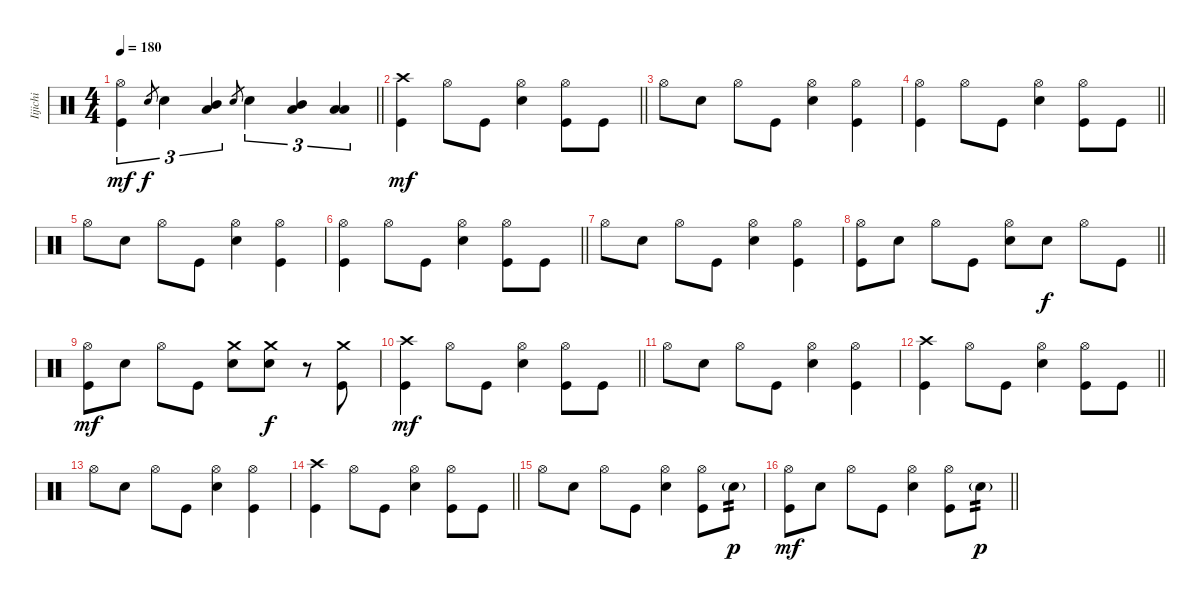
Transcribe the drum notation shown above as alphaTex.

\track ("Iijichi" "Iijichi") {instrument percussion}
\staff {score}
\articulation defaults
\ts (4 4)
\tempo 180
\clef neutral
\barLineRight lightlight
\ks c
("Hi-Hat (open)" "Kick (hit)").4{tu (3 2) dy mf} "Electric Snare (hit)".8{gr dy f} "Electric Snare (hit)".4{tu (3 2)} ("Mid Tom (hit)" "Low Tom (hit)").4{tu (3 2)} "Electric Snare (hit)".8{gr} "Electric Snare (hit)".4{tu (3 2)} ("Mid Tom (hit)" "Low Tom (hit)").4{tu (3 2)} ("Low Tom (hit)" "Low Floor Tom (hit)").4{tu (3 2)} |
\barLineRight lightlight
("Crash high (hit)" "Kick (hit)").4{dy mf} "Hi-Hat (open)".8 "Kick (hit)".8 ("Hi-Hat (open)" "Electric Snare (hit)").4 ("Hi-Hat (open)" "Kick (hit)").8 "Kick (hit)".8 |
"Hi-Hat (open)".8 "Electric Snare (hit)".8 "Hi-Hat (open)".8 "Kick (hit)".8 ("Hi-Hat (open)" "Electric Snare (hit)").4 ("Hi-Hat (open)" "Kick (hit)").4 |
\barLineRight lightlight
("Hi-Hat (open)" "Kick (hit)").4 "Hi-Hat (open)".8 "Kick (hit)".8 ("Hi-Hat (open)" "Electric Snare (hit)").4 ("Hi-Hat (open)" "Kick (hit)").8 "Kick (hit)".8 |
"Hi-Hat (open)".8 "Electric Snare (hit)".8 "Hi-Hat (open)".8 "Kick (hit)".8 ("Hi-Hat (open)" "Electric Snare (hit)").4 ("Hi-Hat (open)" "Kick (hit)").4 |
\barLineRight lightlight
("Hi-Hat (open)" "Kick (hit)").4 "Hi-Hat (open)".8 "Kick (hit)".8 ("Hi-Hat (open)" "Electric Snare (hit)").4 ("Hi-Hat (open)" "Kick (hit)").8 "Kick (hit)".8 |
"Hi-Hat (open)".8 "Electric Snare (hit)".8 "Hi-Hat (open)".8 "Kick (hit)".8 ("Hi-Hat (open)" "Electric Snare (hit)").4 ("Hi-Hat (open)" "Kick (hit)").4 |
\barLineRight lightlight
("Hi-Hat (open)" "Kick (hit)").8 "Electric Snare (hit)".8 "Hi-Hat (open)".8 "Kick (hit)".8 ("Hi-Hat (open)" "Electric Snare (hit)").8 "Electric Snare (hit)".8{dy f} "Hi-Hat (open)".8 "Kick (hit)".8 |
("Hi-Hat (open)" "Kick (hit)").8{dy mf} "Electric Snare (hit)".8 "Hi-Hat (open)".8 "Kick (hit)".8 ("Crash medium (hit)" "Electric Snare (hit)").8 ("Electric Snare (hit)" "Crash medium (hit)").8{dy f} r.8 ("Kick (hit)" "Crash medium (hit)").8 |
\barLineRight lightlight
("Crash high (hit)" "Kick (hit)").4{dy mf} "Hi-Hat (open)".8 "Kick (hit)".8 ("Hi-Hat (open)" "Electric Snare (hit)").4 ("Hi-Hat (open)" "Kick (hit)").8 "Kick (hit)".8 |
"Hi-Hat (open)".8 "Electric Snare (hit)".8 "Hi-Hat (open)".8 "Kick (hit)".8 ("Hi-Hat (open)" "Electric Snare (hit)").4 ("Hi-Hat (open)" "Kick (hit)").4 |
\barLineRight lightlight
("Crash high (hit)" "Kick (hit)").4 "Hi-Hat (open)".8 "Kick (hit)".8 ("Hi-Hat (open)" "Electric Snare (hit)").4 ("Hi-Hat (open)" "Kick (hit)").8 "Kick (hit)".8 |
"Hi-Hat (open)".8 "Electric Snare (hit)".8 "Hi-Hat (open)".8 "Kick (hit)".8 ("Hi-Hat (open)" "Electric Snare (hit)").4 ("Hi-Hat (open)" "Kick (hit)").4 |
\barLineRight lightlight
("Crash high (hit)" "Kick (hit)").4 "Hi-Hat (open)".8 "Kick (hit)".8 ("Hi-Hat (open)" "Electric Snare (hit)").4 ("Hi-Hat (open)" "Kick (hit)").8 "Kick (hit)".8 |
"Hi-Hat (open)".8 "Electric Snare (hit)".8 "Hi-Hat (open)".8 "Kick (hit)".8 ("Hi-Hat (open)" "Electric Snare (hit)").4 ("Hi-Hat (open)" "Kick (hit)").8 "Electric Snare (hit)"{g}.8{tp 2 dy p} |
\barLineRight lightlight
("Hi-Hat (open)" "Kick (hit)").8{dy mf} "Electric Snare (hit)".8 "Hi-Hat (open)".8 "Kick (hit)".8 ("Hi-Hat (open)" "Electric Snare (hit)").4 ("Hi-Hat (open)" "Kick (hit)").8 "Electric Snare (hit)"{g}.8{tp 2 dy p}
